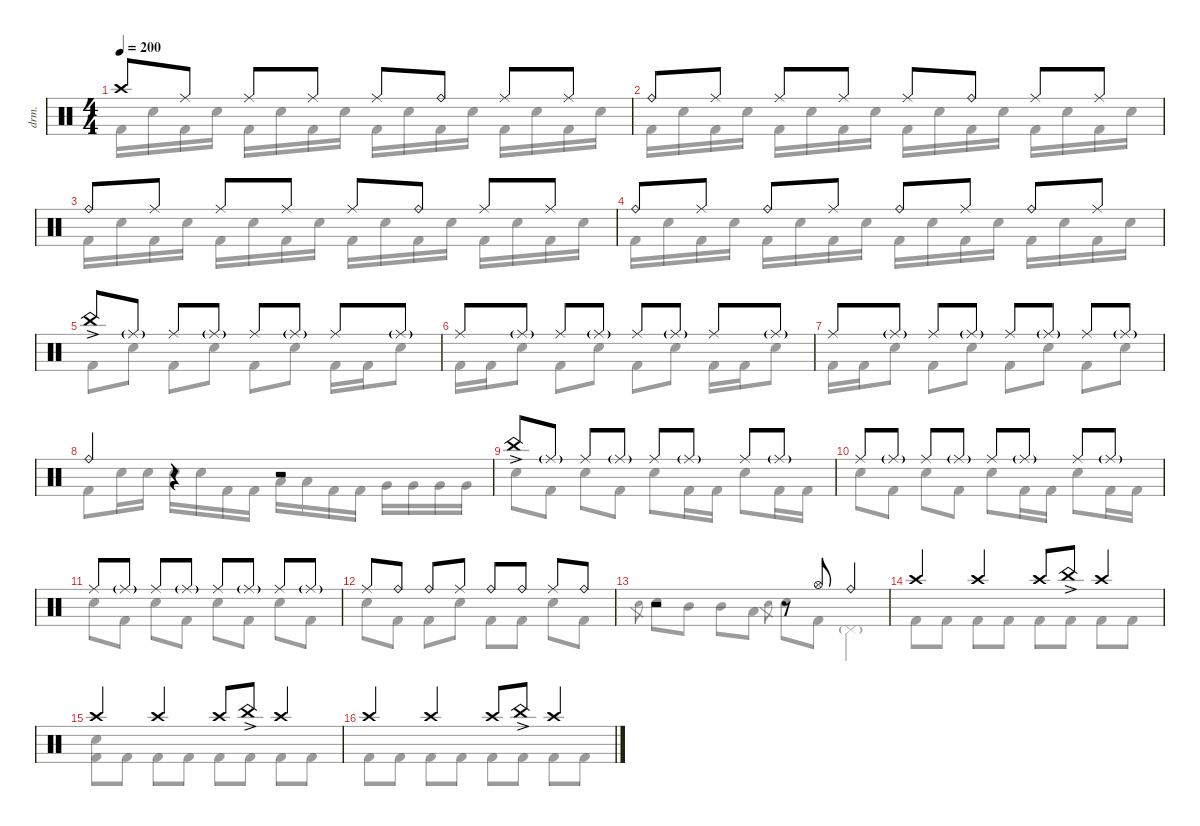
\defaultSystemsLayout 4
\hideDynamics
\bracketExtendMode nobrackets
\otherSystemsTrackNameOrientation horizontal
\track ("B. Richardson Drums" "drm.") {instrument percussion}
\staff {score}
\articulation defaults
\voice
\ts (4 4)
\tempo 200
\clef neutral
\ks c "Crash high (hit)".8{dy mf beam Up} "Ride (middle)".8{beam Up} "Ride (middle)".8{beam Up} "Ride (middle)".8{beam Up} "Ride (middle)".8{beam Up} "Ride (bell)".8{dy f beam Up} "Ride (middle)".8{dy mf beam Up} "Ride (middle)".8{beam Up}
|
"Ride (bell)".8{dy f beam Up} "Ride (middle)".8{dy mf beam Up} "Ride (middle)".8{beam Up} "Ride (middle)".8{beam Up} "Ride (middle)".8{beam Up} "Ride (bell)".8{dy f beam Up} "Ride (middle)".8{dy mf beam Up} "Ride (middle)".8{beam Up} |
"Ride (bell)".8{dy f beam Up} "Ride (middle)".8{dy mf beam Up} "Ride (middle)".8{beam Up} "Ride (middle)".8{beam Up} "Ride (middle)".8{beam Up} "Ride (bell)".8{dy f beam Up} "Ride (middle)".8{dy mf beam Up} "Ride (middle)".8{beam Up} |
"Ride (bell)".8{dy f beam Up} "Ride (middle)".8{dy mf beam Up} "Ride (bell)".8{dy f beam Up} "Ride (middle)".8{dy mf beam Up} "Ride (bell)".8{dy f beam Up} "Ride (middle)".8{dy mf beam Up} "Ride (bell)".8{dy f beam Up} "Ride (middle)".8{dy mf beam Up} |
"China (hit)"{ac}.8{dy f beam Up} "Ride (middle)"{g}.8{dy mf beam Up} "Ride (middle)".8{beam Up} "Ride (middle)"{g}.8{beam Up} "Ride (middle)".8{beam Up} "Ride (middle)"{g}.8{beam Up} "Ride (middle)".8{beam Up} "Ride (middle)"{g}.8{beam Up} |
"Ride (middle)".8{beam Up} "Ride (middle)"{g}.8{beam Up} "Ride (middle)".8{beam Up} "Ride (middle)"{g}.8{beam Up} "Ride (middle)".8{beam Up} "Ride (middle)"{g}.8{beam Up} "Ride (middle)".8{beam Up} "Ride (middle)"{g}.8{beam Up} |
"Ride (middle)".8{beam Up} "Ride (middle)"{g}.8{beam Up} "Ride (middle)".8{beam Up} "Ride (middle)"{g}.8{beam Up} "Ride (middle)".8{beam Up} "Ride (middle)"{g}.8{beam Up} "Ride (middle)".8{beam Up} "Ride (middle)"{g}.8{beam Up} |
"Ride (bell)".4{beam Up} r.4{beam Up} r.2{beam Up} |
"China (hit)"{ac}.8{dy f beam Up} "Ride (middle)"{g}.8{dy mf beam Up} "Ride (middle)".8{beam Up} "Ride (middle)"{g}.8{beam Up} "Ride (middle)".8{beam Up} "Ride (middle)"{g}.8{beam Up} "Ride (middle)".8{beam Up} "Ride (middle)"{g}.8{beam Up} |
"Ride (middle)".8{beam Up} "Ride (middle)"{g}.8{beam Up} "Ride (middle)".8{beam Up} "Ride (middle)"{g}.8{beam Up} "Ride (middle)".8{beam Up} "Ride (middle)"{g}.8{beam Up} "Ride (middle)".8{beam Up} "Ride (middle)"{g}.8{beam Up} |
"Ride (middle)".8{beam Up} "Ride (middle)"{g}.8{beam Up} "Ride (middle)".8{beam Up} "Ride (middle)"{g}.8{beam Up} "Ride (middle)".8{beam Up} "Ride (middle)"{g}.8{beam Up} "Ride (middle)".8{beam Up} "Ride (middle)"{g}.8{beam Up} |
"Ride (middle)".8{beam Up} "Ride (bell)".8{beam Up} "Ride (bell)".8{beam Up} "Ride (middle)".8{beam Up} "Ride (bell)".8{beam Up} "Ride (bell)".8{beam Up} "Ride (middle)".8{beam Up} "Ride (bell)".8{beam Up} |
r.2{beam Up} r.8{beam Up} "Hi-Hat (open)".8{beam Up} "Ride (bell)".4{dy f beam Up} |
"Crash high (hit)".4{dy mf beam Up} "Crash high (hit)".4{beam Up} "Crash high (hit)".8{beam Up} "China (hit)"{ac}.8{dy f beam Up} "Crash high (hit)".4{dy mf beam Up} |
"Crash high (hit)".4{beam Up} "Crash high (hit)".4{beam Up} "Crash high (hit)".8{beam Up} "China (hit)"{ac}.8{dy f beam Up} "Crash high (hit)".4{dy mf beam Up} |
"Crash high (hit)".4{beam Up} "Crash high (hit)".4{beam Up} "Crash high (hit)".8{beam Up} "China (hit)"{ac}.8{dy f beam Up} "Crash high (hit)".4{dy mf beam Up}
\voice
\clef neutral
\ottava regular
\simile none
\ks c "Kick (hit) 2".16{dy fff beam Down} "Snare (hit) 2".16{dy f beam Down} "Kick (hit) 2".16{dy fff beam Down} "Snare (hit) 2".16{dy f beam Down} "Kick (hit) 2".16{dy fff beam Down} "Snare (hit) 2".16{dy f beam Down} "Kick (hit) 2".16{dy fff beam Down} "Snare (hit) 2".16{dy f beam Down} "Kick (hit) 2".16{dy fff beam Down} "Snare (hit) 2".16{dy f beam Down} "Kick (hit) 2".16{dy fff beam Down} "Snare (hit) 2".16{dy f beam Down} "Kick (hit) 2".16{dy fff beam Down} "Snare (hit) 2".16{dy f beam Down} "Kick (hit) 2".16{dy fff beam Down} "Snare (hit) 2".16{dy f beam Down}
|
"Kick (hit) 2".16{dy fff beam Down} "Snare (hit) 2".16{dy f beam Down} "Kick (hit) 2".16{dy fff beam Down} "Snare (hit) 2".16{dy f beam Down} "Kick (hit) 2".16{dy fff beam Down} "Snare (hit) 2".16{dy f beam Down} "Kick (hit) 2".16{dy fff beam Down} "Snare (hit) 2".16{dy f beam Down} "Kick (hit) 2".16{dy fff beam Down} "Snare (hit) 2".16{dy f beam Down} "Kick (hit) 2".16{dy fff beam Down} "Snare (hit) 2".16{dy f beam Down} "Kick (hit) 2".16{dy fff beam Down} "Snare (hit) 2".16{dy f beam Down} "Kick (hit) 2".16{dy fff beam Down} "Snare (hit) 2".16{dy f beam Down} |
"Kick (hit) 2".16{dy fff beam Down} "Snare (hit) 2".16{dy f beam Down} "Kick (hit) 2".16{dy fff beam Down} "Snare (hit) 2".16{dy f beam Down} "Kick (hit) 2".16{dy fff beam Down} "Snare (hit) 2".16{dy f beam Down} "Kick (hit) 2".16{dy fff beam Down} "Snare (hit) 2".16{dy f beam Down} "Kick (hit) 2".16{dy fff beam Down} "Snare (hit) 2".16{dy f beam Down} "Kick (hit) 2".16{dy fff beam Down} "Snare (hit) 2".16{dy f beam Down} "Kick (hit) 2".16{dy fff beam Down} "Snare (hit) 2".16{dy f beam Down} "Kick (hit) 2".16{dy fff beam Down} "Snare (hit) 2".16{dy f beam Down} |
"Kick (hit) 2".16{dy fff beam Down} "Snare (hit) 2".16{dy f beam Down} "Kick (hit) 2".16{dy fff beam Down} "Snare (hit) 2".16{dy f beam Down} "Kick (hit) 2".16{dy fff beam Down} "Snare (hit) 2".16{dy f beam Down} "Kick (hit) 2".16{dy fff beam Down} "Snare (hit) 2".16{dy f beam Down} "Kick (hit) 2".16{dy fff beam Down} "Snare (hit) 2".16{dy f beam Down} "Kick (hit) 2".16{dy fff beam Down} "Snare (hit) 2".16{dy f beam Down} "Kick (hit) 2".16{dy fff beam Down} "Snare (hit) 2".16{dy f beam Down} "Kick (hit) 2".16{dy fff beam Down} "Snare (hit) 2".16{dy f beam Down} |
"Kick (hit) 2".8{dy fff beam Down} "Snare (hit) 2".8{beam Down} "Kick (hit) 2".8{beam Down} "Snare (hit) 2".8{beam Down} "Kick (hit) 2".8{beam Down} "Snare (hit) 2".8{beam Down} "Kick (hit) 2".16{beam Down} "Kick (hit) 2".16{beam Down} "Snare (hit) 2".8{beam Down} |
"Kick (hit) 2".16{beam Down} "Kick (hit) 2".16{beam Down} "Snare (hit) 2".8{beam Down} "Kick (hit) 2".8{beam Down} "Snare (hit) 2".8{beam Down} "Kick (hit) 2".8{beam Down} "Snare (hit) 2".8{beam Down} "Kick (hit) 2".16{beam Down} "Kick (hit) 2".16{beam Down} "Snare (hit) 2".8{beam Down} |
"Kick (hit) 2".16{beam Down} "Kick (hit) 2".16{beam Down} "Snare (hit) 2".8{beam Down} "Kick (hit) 2".8{beam Down} "Snare (hit) 2".8{beam Down} "Kick (hit) 2".8{beam Down} "Snare (hit) 2".8{beam Down} "Kick (hit) 2".8{beam Down} "Snare (hit) 2".8{beam Down} |
"Kick (hit) 2".8{beam Down} "Snare (hit) 2".16{beam Down} "Snare (hit) 2".16{beam Down} "Snare (hit) 2".16{beam Down} "Snare (hit) 2".16{beam Down} "Kick (hit) 2".16{beam Down} "Kick (hit) 2".16{beam Down} "Low Tom (hit)".16{beam Down} "Low Tom (hit)".16{beam Down} "Kick (hit) 2".16{beam Down} "Kick (hit) 2".16{beam Down} "Very Low Tom (hit)".16{beam Down} "Very Low Tom (hit)".16{beam Down} "Very Low Tom (hit)".16{beam Down} "Very Low Tom (hit)".16{beam Down} |
"Snare (hit) 2".8{beam Down} "Kick (hit) 2".8{beam Down} "Snare (hit) 2".8{beam Down} "Kick (hit) 2".8{beam Down} "Snare (hit) 2".8{beam Down} "Kick (hit) 2".16{beam Down} "Kick (hit) 2".16{beam Down} "Snare (hit) 2".8{beam Down} "Kick (hit) 2".16{beam Down} "Kick (hit) 2".16{beam Down} |
"Snare (hit) 2".8{beam Down} "Kick (hit) 2".8{beam Down} "Snare (hit) 2".8{beam Down} "Kick (hit) 2".8{beam Down} "Snare (hit) 2".8{beam Down} "Kick (hit) 2".16{beam Down} "Kick (hit) 2".16{beam Down} "Snare (hit) 2".8{beam Down} "Kick (hit) 2".16{beam Down} "Kick (hit) 2".16{beam Down} |
"Snare (hit) 2".8{beam Down} "Kick (hit) 2".8{beam Down} "Snare (hit) 2".8{beam Down} "Kick (hit) 2".8{beam Down} "Snare (hit) 2".8{beam Down} "Kick (hit) 2".8{beam Down} "Snare (hit) 2".8{beam Down} "Kick (hit) 2".8{beam Down} |
"Snare (hit) 2".8{beam Down} "Kick (hit) 2".8{beam Down} "Kick (hit) 2".8{beam Down} "Snare (hit) 2".8{beam Down} "Kick (hit) 2".8{beam Down} "Kick (hit) 2".8{beam Down} "Snare (hit) 2".8{beam Down} "Kick (hit) 2".8{beam Down} |
"Electric Snare (hit)".8{gr dy ff beam Down} "Snare (hit) 2".8{dy fff beam Down} "Mid Tom (hit)".8{beam Down} "Mid Tom (hit)".8{beam Down} "Low Tom (hit)".8{beam Down} "Electric Snare (hit)".8{gr dy ff beam Down} "Snare (hit) 2".8{dy fff beam Down} "Kick (hit) 2".8{beam Down} "Pedal Hi-Hat (hit)"{g}.4{dy mf beam Down} |
"Kick (hit) 2".8{dy fff beam Down} "Kick (hit) 2".8{beam Down} "Kick (hit) 2".8{beam Down} "Kick (hit) 2".8{beam Down} "Kick (hit) 2".8{beam Down} "Kick (hit) 2".8{beam Down} "Kick (hit) 2".8{beam Down} "Kick (hit) 2".8{beam Down} |
("Snare (hit) 2" "Kick (hit) 2").8{beam Down} "Kick (hit) 2".8{beam Down} "Kick (hit) 2".8{beam Down} "Kick (hit) 2".8{beam Down} "Kick (hit) 2".8{beam Down} "Kick (hit) 2".8{beam Down} "Kick (hit) 2".8{beam Down} "Kick (hit) 2".8{beam Down} |
"Kick (hit) 2".8{beam Down} "Kick (hit) 2".8{beam Down} "Kick (hit) 2".8{beam Down} "Kick (hit) 2".8{beam Down} "Kick (hit) 2".8{beam Down} "Kick (hit) 2".8{beam Down} "Kick (hit) 2".8{beam Down} "Kick (hit) 2".8{beam Down}
